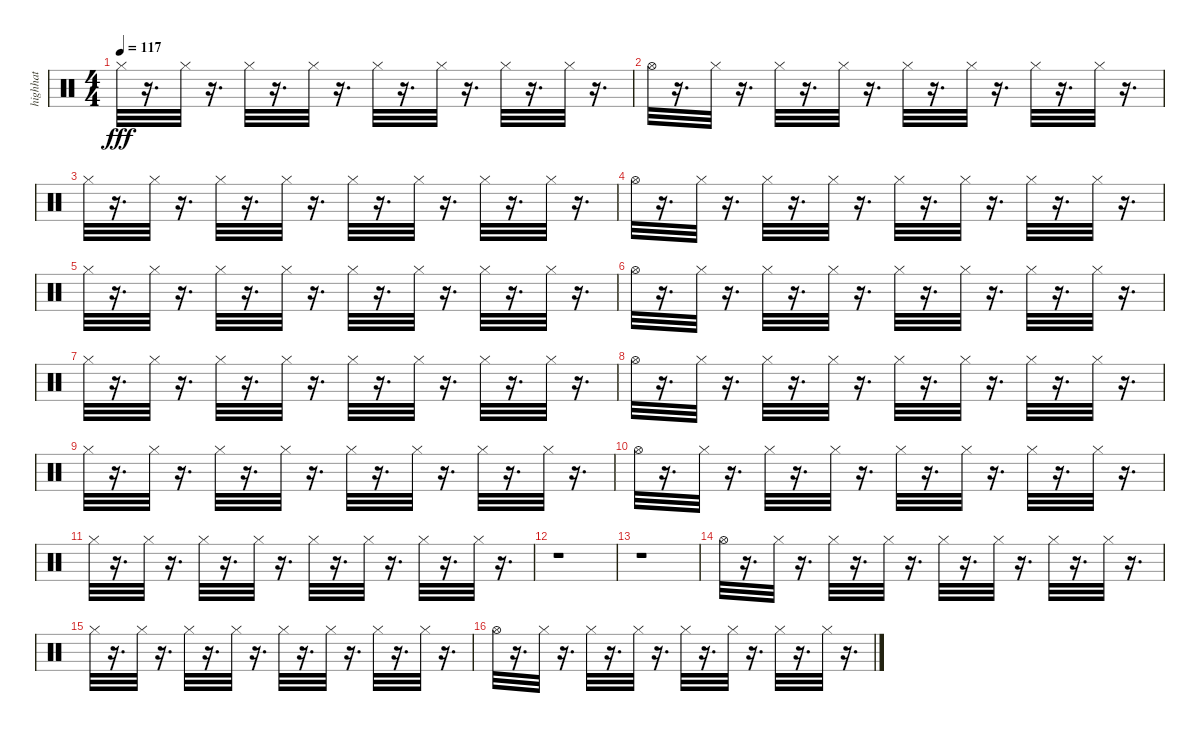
\track ("highhat" "highhat") {instrument percussion}
\staff {score}
\articulation defaults
\ts (4 4)
\tempo 117
\clef neutral
\ks c "Hi-Hat (closed)".32{dy fff}
r.16{d} "Hi-Hat (closed)".32 r.16{d} "Hi-Hat (closed)".32 r.16{d} "Hi-Hat (closed)".32 r.16{d} "Hi-Hat (closed)".32 r.16{d} "Hi-Hat (closed)".32 r.16{d} "Hi-Hat (closed)".32 r.16{d} "Hi-Hat (closed)".32 r.16{d} |
"Hi-Hat (open)".32 r.16{d} "Hi-Hat (closed)".32 r.16{d} "Hi-Hat (closed)".32 r.16{d} "Hi-Hat (closed)".32 r.16{d} "Hi-Hat (closed)".32 r.16{d} "Hi-Hat (closed)".32 r.16{d} "Hi-Hat (closed)".32 r.16{d} "Hi-Hat (closed)".32 r.16{d} |
"Hi-Hat (closed)".32 r.16{d} "Hi-Hat (closed)".32 r.16{d} "Hi-Hat (closed)".32 r.16{d} "Hi-Hat (closed)".32 r.16{d} "Hi-Hat (closed)".32 r.16{d} "Hi-Hat (closed)".32 r.16{d} "Hi-Hat (closed)".32 r.16{d} "Hi-Hat (closed)".32 r.16{d} |
"Hi-Hat (open)".32 r.16{d} "Hi-Hat (closed)".32 r.16{d} "Hi-Hat (closed)".32 r.16{d} "Hi-Hat (closed)".32 r.16{d} "Hi-Hat (closed)".32 r.16{d} "Hi-Hat (closed)".32 r.16{d} "Hi-Hat (closed)".32 r.16{d} "Hi-Hat (closed)".32 r.16{d} |
"Hi-Hat (closed)".32 r.16{d} "Hi-Hat (closed)".32 r.16{d} "Hi-Hat (closed)".32 r.16{d} "Hi-Hat (closed)".32 r.16{d} "Hi-Hat (closed)".32 r.16{d} "Hi-Hat (closed)".32 r.16{d} "Hi-Hat (closed)".32 r.16{d} "Hi-Hat (closed)".32 r.16{d} |
"Hi-Hat (open)".32 r.16{d} "Hi-Hat (closed)".32 r.16{d} "Hi-Hat (closed)".32 r.16{d} "Hi-Hat (closed)".32 r.16{d} "Hi-Hat (closed)".32 r.16{d} "Hi-Hat (closed)".32 r.16{d} "Hi-Hat (closed)".32 r.16{d} "Hi-Hat (closed)".32 r.16{d} |
"Hi-Hat (closed)".32 r.16{d} "Hi-Hat (closed)".32 r.16{d} "Hi-Hat (closed)".32 r.16{d} "Hi-Hat (closed)".32 r.16{d} "Hi-Hat (closed)".32 r.16{d} "Hi-Hat (closed)".32 r.16{d} "Hi-Hat (closed)".32 r.16{d} "Hi-Hat (closed)".32 r.16{d} |
"Hi-Hat (open)".32 r.16{d} "Hi-Hat (closed)".32 r.16{d} "Hi-Hat (closed)".32 r.16{d} "Hi-Hat (closed)".32 r.16{d} "Hi-Hat (closed)".32 r.16{d} "Hi-Hat (closed)".32 r.16{d} "Hi-Hat (closed)".32 r.16{d} "Hi-Hat (closed)".32 r.16{d} |
"Hi-Hat (closed)".32 r.16{d} "Hi-Hat (closed)".32 r.16{d} "Hi-Hat (closed)".32 r.16{d} "Hi-Hat (closed)".32 r.16{d} "Hi-Hat (closed)".32 r.16{d} "Hi-Hat (closed)".32 r.16{d} "Hi-Hat (closed)".32 r.16{d} "Hi-Hat (closed)".32 r.16{d} |
"Hi-Hat (open)".32 r.16{d} "Hi-Hat (closed)".32 r.16{d} "Hi-Hat (closed)".32 r.16{d} "Hi-Hat (closed)".32 r.16{d} "Hi-Hat (closed)".32 r.16{d} "Hi-Hat (closed)".32 r.16{d} "Hi-Hat (closed)".32 r.16{d} "Hi-Hat (closed)".32 r.16{d} |
"Hi-Hat (closed)".32 r.16{d} "Hi-Hat (closed)".32 r.16{d} "Hi-Hat (closed)".32 r.16{d} "Hi-Hat (closed)".32 r.16{d} "Hi-Hat (closed)".32 r.16{d} "Hi-Hat (closed)".32 r.16{d} "Hi-Hat (closed)".32 r.16{d} "Hi-Hat (closed)".32 r.16{d} |
r.1 |
r.1 |
"Hi-Hat (open)".32 r.16{d} "Hi-Hat (closed)".32 r.16{d} "Hi-Hat (closed)".32 r.16{d} "Hi-Hat (closed)".32 r.16{d} "Hi-Hat (closed)".32 r.16{d} "Hi-Hat (closed)".32 r.16{d} "Hi-Hat (closed)".32 r.16{d} "Hi-Hat (closed)".32 r.16{d} |
"Hi-Hat (closed)".32 r.16{d} "Hi-Hat (closed)".32 r.16{d} "Hi-Hat (closed)".32 r.16{d} "Hi-Hat (closed)".32 r.16{d} "Hi-Hat (closed)".32 r.16{d} "Hi-Hat (closed)".32 r.16{d} "Hi-Hat (closed)".32 r.16{d} "Hi-Hat (closed)".32 r.16{d} |
"Hi-Hat (open)".32 r.16{d} "Hi-Hat (closed)".32 r.16{d} "Hi-Hat (closed)".32 r.16{d} "Hi-Hat (closed)".32 r.16{d} "Hi-Hat (closed)".32 r.16{d} "Hi-Hat (closed)".32 r.16{d} "Hi-Hat (closed)".32 r.16{d} "Hi-Hat (closed)".32 r.16{d}
